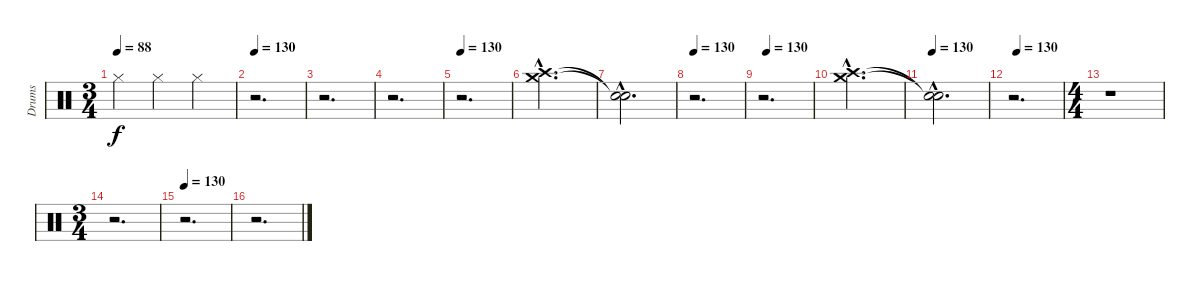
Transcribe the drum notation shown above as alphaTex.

\track ("Drums" "Drums") {instrument percussion}
\staff {score}
\articulation defaults
\ts (3 4)
\tempo 88
\tempo 130
\tempo 88
\clef neutral
\ks c "Hi-Hat (closed)".4{dy f} "Hi-Hat (closed)".4 "Hi-Hat (closed)".4
|
\tempo 130
r.2{d} |
r.2{d} |
r.2{d} |
\tempo 130
r.2{d} |
("Crash medium (hit)"{hac} "Crash high (hit)"{hac}).2{d} |
("Snare (hit)"{hac t} "Snare (hit)"{hac t}).2{d} |
\tempo 130
r.2{d} |
\tempo (130 0.08333333333333333)
r.2{d} |
("Crash medium (hit)"{hac} "Crash high (hit)"{hac}).2{d} |
\tempo 130
("Snare (hit)"{hac t} "Snare (hit)"{hac t}).2{d} |
\tempo (130 0.08333333333333333)
r.2{d} |
\ts (4 4)
r.1 |
\ts (3 4)
r.2{d} |
\tempo 130
r.2{d} |
r.2{d}
